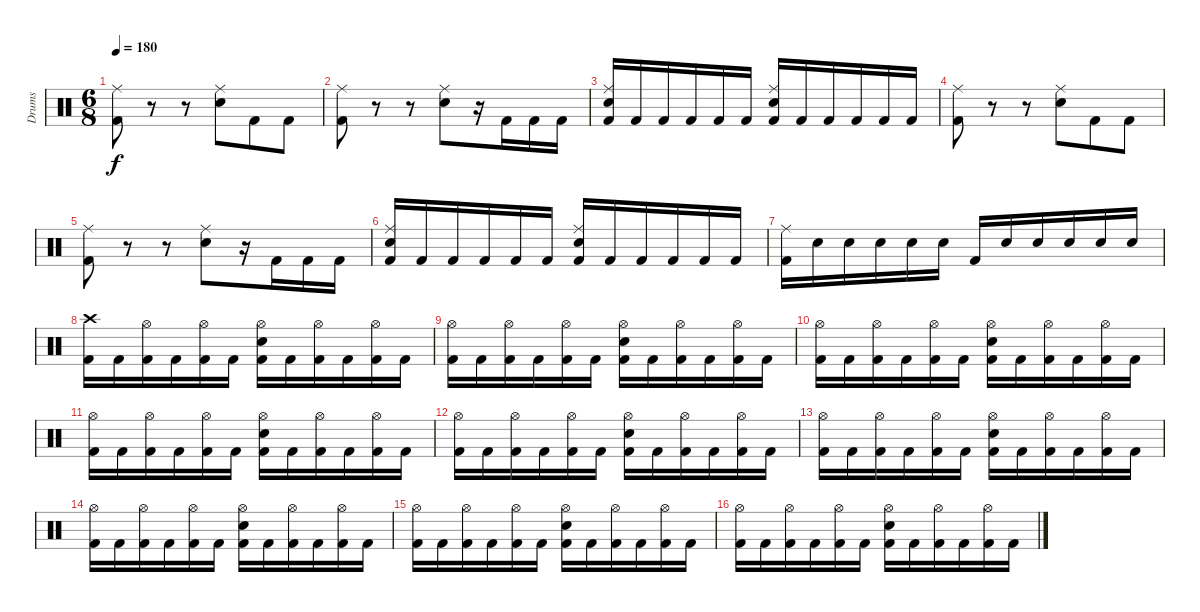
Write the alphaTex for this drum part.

\track ("Drums" "Drums") {instrument percussion}
\staff {score}
\articulation defaults
\ts (6 8)
\tempo 180
\clef neutral
\ks c
("Kick (hit) 2" "Ride (middle)").8{dy f} r.8 r.8 ("Electric Snare (hit)" "Ride (middle)").8 "Kick (hit) 2".8 "Kick (hit) 2".8 |
("Kick (hit) 2" "Ride (middle)").8 r.8 r.8 ("Electric Snare (hit)" "Ride (middle)").8 r.16 "Kick (hit) 2".16 "Kick (hit) 2".16 "Kick (hit) 2".16 |
("Kick (hit) 2" "Electric Snare (hit)" "Ride (middle)").16 "Kick (hit) 2".16 "Kick (hit) 2".16 "Kick (hit) 2".16 "Kick (hit) 2".16 "Kick (hit) 2".16 ("Kick (hit) 2" "Electric Snare (hit)" "Ride (middle)").16 "Kick (hit) 2".16 "Kick (hit) 2".16 "Kick (hit) 2".16 "Kick (hit) 2".16 "Kick (hit) 2".16 |
("Kick (hit) 2" "Ride (middle)").8 r.8 r.8 ("Electric Snare (hit)" "Ride (middle)").8 "Kick (hit) 2".8 "Kick (hit) 2".8 |
("Kick (hit) 2" "Ride (middle)").8 r.8 r.8 ("Electric Snare (hit)" "Ride (middle)").8 r.16 "Kick (hit) 2".16 "Kick (hit) 2".16 "Kick (hit) 2".16 |
("Kick (hit) 2" "Electric Snare (hit)" "Ride (middle)").16 "Kick (hit) 2".16 "Kick (hit) 2".16 "Kick (hit) 2".16 "Kick (hit) 2".16 "Kick (hit) 2".16 ("Kick (hit) 2" "Electric Snare (hit)" "Ride (middle)").16 "Kick (hit) 2".16 "Kick (hit) 2".16 "Kick (hit) 2".16 "Kick (hit) 2".16 "Kick (hit) 2".16 |
("Kick (hit) 2" "Ride (middle)").16 "Electric Snare (hit)".16 "Electric Snare (hit)".16 "Electric Snare (hit)".16 "Electric Snare (hit)".16 "Electric Snare (hit)".16 "Kick (hit) 2".16 "Electric Snare (hit)".16 "Electric Snare (hit)".16 "Electric Snare (hit)".16 "Electric Snare (hit)".16 "Electric Snare (hit)".16 |
("Kick (hit) 2" "Crash high (hit)").16 "Kick (hit) 2".16 ("Kick (hit) 2" "Hi-Hat (open)").16 "Kick (hit) 2".16 ("Kick (hit) 2" "Hi-Hat (open)").16 "Kick (hit) 2".16 ("Kick (hit) 2" "Electric Snare (hit)" "Hi-Hat (open)").16 "Kick (hit) 2".16 ("Kick (hit) 2" "Hi-Hat (open)").16 "Kick (hit) 2".16 ("Kick (hit) 2" "Hi-Hat (open)").16 "Kick (hit) 2".16 |
("Kick (hit) 2" "Hi-Hat (open)").16 "Kick (hit) 2".16 ("Kick (hit) 2" "Hi-Hat (open)").16 "Kick (hit) 2".16 ("Kick (hit) 2" "Hi-Hat (open)").16 "Kick (hit) 2".16 ("Kick (hit) 2" "Electric Snare (hit)" "Hi-Hat (open)").16 "Kick (hit) 2".16 ("Kick (hit) 2" "Hi-Hat (open)").16 "Kick (hit) 2".16 ("Kick (hit) 2" "Hi-Hat (open)").16 "Kick (hit) 2".16 |
("Kick (hit) 2" "Hi-Hat (open)").16 "Kick (hit) 2".16 ("Kick (hit) 2" "Hi-Hat (open)").16 "Kick (hit) 2".16 ("Kick (hit) 2" "Hi-Hat (open)").16 "Kick (hit) 2".16 ("Kick (hit) 2" "Electric Snare (hit)" "Hi-Hat (open)").16 "Kick (hit) 2".16 ("Kick (hit) 2" "Hi-Hat (open)").16 "Kick (hit) 2".16 ("Kick (hit) 2" "Hi-Hat (open)").16 "Kick (hit) 2".16 |
("Kick (hit) 2" "Hi-Hat (open)").16 "Kick (hit) 2".16 ("Kick (hit) 2" "Hi-Hat (open)").16 "Kick (hit) 2".16 ("Kick (hit) 2" "Hi-Hat (open)").16 "Kick (hit) 2".16 ("Kick (hit) 2" "Electric Snare (hit)" "Hi-Hat (open)").16 "Kick (hit) 2".16 ("Kick (hit) 2" "Hi-Hat (open)").16 "Kick (hit) 2".16 ("Kick (hit) 2" "Hi-Hat (open)").16 "Kick (hit) 2".16 |
("Kick (hit) 2" "Hi-Hat (open)").16 "Kick (hit) 2".16 ("Kick (hit) 2" "Hi-Hat (open)").16 "Kick (hit) 2".16 ("Kick (hit) 2" "Hi-Hat (open)").16 "Kick (hit) 2".16 ("Kick (hit) 2" "Electric Snare (hit)" "Hi-Hat (open)").16 "Kick (hit) 2".16 ("Kick (hit) 2" "Hi-Hat (open)").16 "Kick (hit) 2".16 ("Kick (hit) 2" "Hi-Hat (open)").16 "Kick (hit) 2".16 |
("Kick (hit) 2" "Hi-Hat (open)").16 "Kick (hit) 2".16 ("Kick (hit) 2" "Hi-Hat (open)").16 "Kick (hit) 2".16 ("Kick (hit) 2" "Hi-Hat (open)").16 "Kick (hit) 2".16 ("Kick (hit) 2" "Electric Snare (hit)" "Hi-Hat (open)").16 "Kick (hit) 2".16 ("Kick (hit) 2" "Hi-Hat (open)").16 "Kick (hit) 2".16 ("Kick (hit) 2" "Hi-Hat (open)").16 "Kick (hit) 2".16 |
("Kick (hit) 2" "Hi-Hat (open)").16 "Kick (hit) 2".16 ("Kick (hit) 2" "Hi-Hat (open)").16 "Kick (hit) 2".16 ("Kick (hit) 2" "Hi-Hat (open)").16 "Kick (hit) 2".16 ("Kick (hit) 2" "Electric Snare (hit)" "Hi-Hat (open)").16 "Kick (hit) 2".16 ("Kick (hit) 2" "Hi-Hat (open)").16 "Kick (hit) 2".16 ("Kick (hit) 2" "Hi-Hat (open)").16 "Kick (hit) 2".16 |
("Kick (hit) 2" "Hi-Hat (open)").16 "Kick (hit) 2".16 ("Kick (hit) 2" "Hi-Hat (open)").16 "Kick (hit) 2".16 ("Kick (hit) 2" "Hi-Hat (open)").16 "Kick (hit) 2".16 ("Kick (hit) 2" "Electric Snare (hit)" "Hi-Hat (open)").16 "Kick (hit) 2".16 ("Kick (hit) 2" "Hi-Hat (open)").16 "Kick (hit) 2".16 ("Kick (hit) 2" "Hi-Hat (open)").16 "Kick (hit) 2".16 |
("Kick (hit) 2" "Hi-Hat (open)").16 "Kick (hit) 2".16 ("Kick (hit) 2" "Hi-Hat (open)").16 "Kick (hit) 2".16 ("Kick (hit) 2" "Hi-Hat (open)").16 "Kick (hit) 2".16 ("Kick (hit) 2" "Electric Snare (hit)" "Hi-Hat (open)").16 "Kick (hit) 2".16 ("Kick (hit) 2" "Hi-Hat (open)").16 "Kick (hit) 2".16 ("Kick (hit) 2" "Hi-Hat (open)").16 "Kick (hit) 2".16
